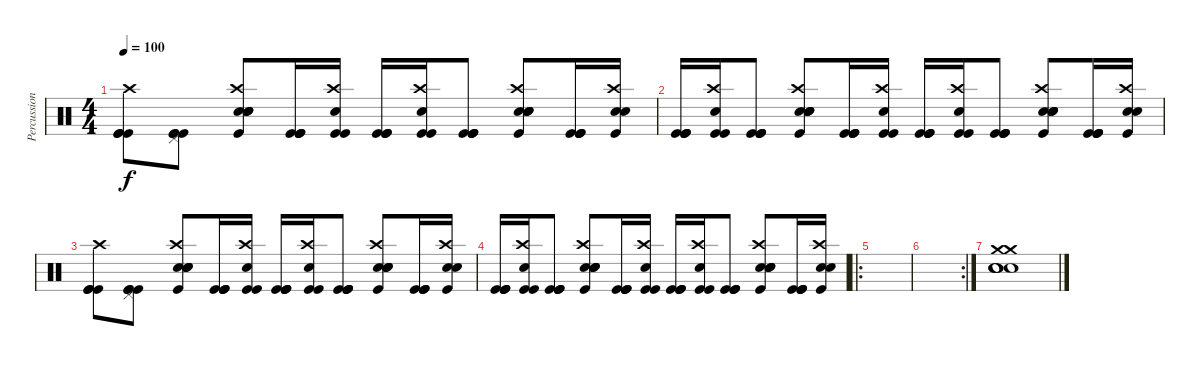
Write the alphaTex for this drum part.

\track ("Percussions" "Percussion") {instrument percussion}
\staff {score}
\articulation defaults
\ts (4 4)
\tempo 100
\clef neutral
\ks c
("Kick (hit)" "Kick (hit)" "Crash high (hit)" "Kick (hit)").8{dy f} ("Kick (hit)" "Kick (hit)" "Pedal Hi-Hat (hit)" "Kick (hit)").8 ("Electric Snare (hit)" "Snare (hit) 2" "Electric Snare (hit)" "Snare (hit) 2" "Crash high (hit)" "Kick (hit)").8 ("Kick (hit)" "Kick (hit)" "Kick (hit)" "Kick (hit)").16 ("Snare (hit) 2" "Kick (hit)" "Crash high (hit)" "Kick (hit)").16 ("Kick (hit)" "Kick (hit)" "Kick (hit)" "Kick (hit)").16 ("Snare (hit) 2" "Kick (hit)" "Crash high (hit)" "Kick (hit)").16 ("Kick (hit)" "Kick (hit)" "Kick (hit)" "Kick (hit)").8 ("Electric Snare (hit)" "Snare (hit) 2" "Electric Snare (hit)" "Snare (hit) 2" "Crash high (hit)" "Kick (hit)").8 ("Kick (hit)" "Kick (hit)" "Kick (hit)" "Kick (hit)").16 ("Electric Snare (hit)" "Snare (hit) 2" "Crash high (hit)" "Kick (hit)").16 |
("Kick (hit)" "Kick (hit)" "Kick (hit)" "Kick (hit)").16 ("Snare (hit) 2" "Kick (hit)" "Crash high (hit)" "Kick (hit)").16 ("Kick (hit)" "Kick (hit)" "Kick (hit)" "Kick (hit)").8 ("Electric Snare (hit)" "Snare (hit) 2" "Electric Snare (hit)" "Snare (hit) 2" "Crash high (hit)" "Kick (hit)").8 ("Kick (hit)" "Kick (hit)" "Kick (hit)" "Kick (hit)").16 ("Snare (hit) 2" "Kick (hit)" "Crash high (hit)" "Kick (hit)").16 ("Kick (hit)" "Kick (hit)" "Kick (hit)" "Kick (hit)").16 ("Snare (hit) 2" "Kick (hit)" "Crash high (hit)" "Kick (hit)").16 ("Kick (hit)" "Kick (hit)" "Kick (hit)" "Kick (hit)").8 ("Electric Snare (hit)" "Snare (hit) 2" "Electric Snare (hit)" "Snare (hit) 2" "Crash high (hit)" "Kick (hit)").8 ("Kick (hit)" "Kick (hit)" "Kick (hit)" "Kick (hit)").16 ("Electric Snare (hit)" "Snare (hit) 2" "Crash high (hit)" "Kick (hit)").16 |
("Kick (hit)" "Kick (hit)" "Crash high (hit)" "Kick (hit)").8 ("Kick (hit)" "Kick (hit)" "Pedal Hi-Hat (hit)" "Kick (hit)").8 ("Electric Snare (hit)" "Snare (hit) 2" "Electric Snare (hit)" "Snare (hit) 2" "Crash high (hit)" "Kick (hit)").8 ("Kick (hit)" "Kick (hit)" "Kick (hit)" "Kick (hit)").16 ("Snare (hit) 2" "Kick (hit)" "Crash high (hit)" "Kick (hit)").16 ("Kick (hit)" "Kick (hit)" "Kick (hit)" "Kick (hit)").16 ("Snare (hit) 2" "Kick (hit)" "Crash high (hit)" "Kick (hit)").16 ("Kick (hit)" "Kick (hit)" "Kick (hit)" "Kick (hit)").8 ("Electric Snare (hit)" "Snare (hit) 2" "Electric Snare (hit)" "Snare (hit) 2" "Crash high (hit)" "Kick (hit)").8 ("Kick (hit)" "Kick (hit)" "Kick (hit)" "Kick (hit)").16 ("Electric Snare (hit)" "Snare (hit) 2" "Crash high (hit)" "Kick (hit)").16 |
("Kick (hit)" "Kick (hit)" "Kick (hit)" "Kick (hit)").16 ("Snare (hit) 2" "Kick (hit)" "Crash high (hit)" "Kick (hit)").16 ("Kick (hit)" "Kick (hit)" "Kick (hit)" "Kick (hit)").8 ("Electric Snare (hit)" "Snare (hit) 2" "Electric Snare (hit)" "Snare (hit) 2" "Crash high (hit)" "Kick (hit)").8 ("Kick (hit)" "Kick (hit)" "Kick (hit)" "Kick (hit)").16 ("Snare (hit) 2" "Kick (hit)" "Crash high (hit)" "Kick (hit)").16 ("Kick (hit)" "Kick (hit)" "Kick (hit)" "Kick (hit)").16 ("Snare (hit) 2" "Kick (hit)" "Crash high (hit)" "Kick (hit)").16 ("Kick (hit)" "Kick (hit)" "Kick (hit)" "Kick (hit)").8 ("Electric Snare (hit)" "Snare (hit) 2" "Electric Snare (hit)" "Snare (hit) 2" "Crash high (hit)" "Kick (hit)").8 ("Kick (hit)" "Kick (hit)" "Kick (hit)" "Kick (hit)").16 ("Electric Snare (hit)" "Snare (hit) 2" "Crash high (hit)" "Kick (hit)").16 |
\ro
|
\rc 2
|
("Crash medium (hit)" "Crash medium (hit)" "Snare (hit) 2" "Snare (hit) 2" "Electric Snare (hit)" "Electric Snare (hit)").1
